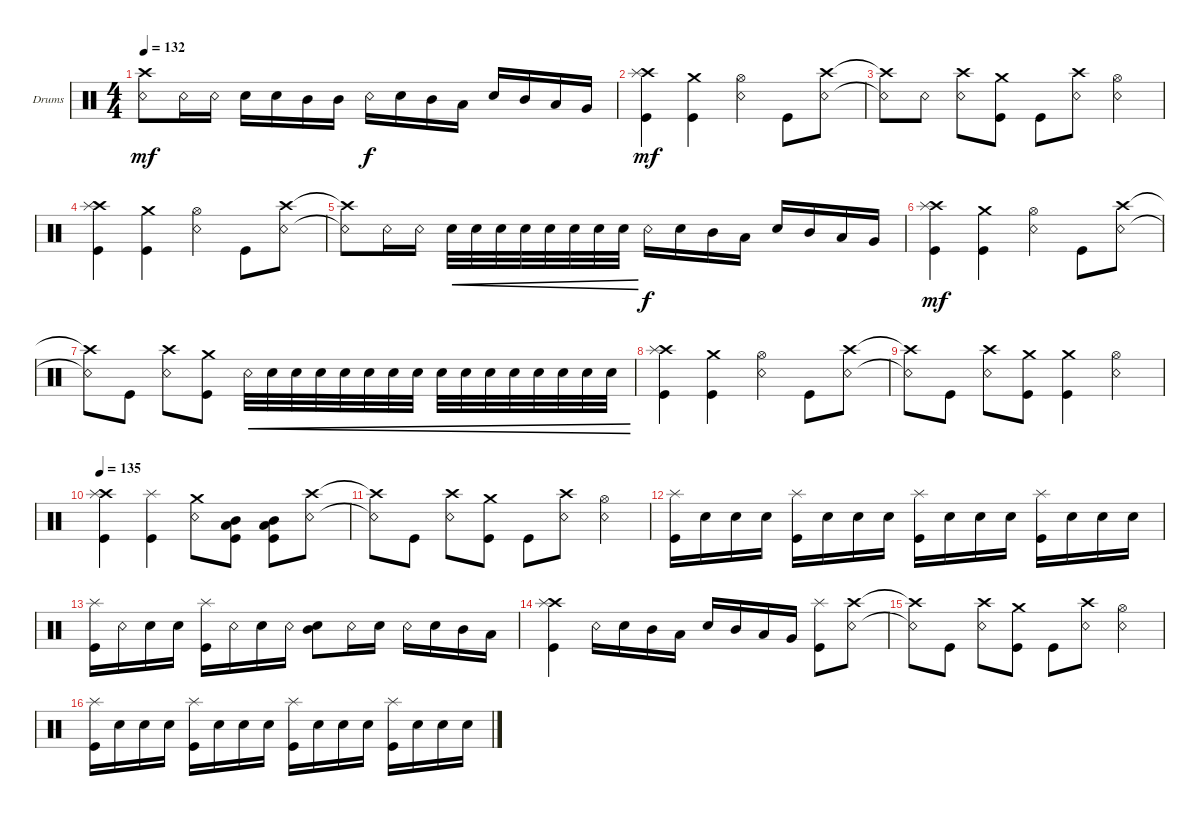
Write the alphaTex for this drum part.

\defaultSystemsLayout 4
\bracketExtendMode groupsimilarinstruments
\firstSystemTrackNameOrientation horizontal
\otherSystemsTrackNameOrientation horizontal
\track ("Drumkit" "Drums") {instrument percussion}
\staff {score}
\articulation defaults
\ts (4 4)
\tempo 132
\clef neutral
\ks c
("Crash high (hit)"{t} "Snare (rim shot)"{t}).8{dy mf} "Snare (rim shot)".16 "Snare (rim shot)".16 "Snare (hit) 2".16 "Snare (hit) 2".16 "Mid Tom (hit)".16 "Mid Tom (hit)".16 "Snare (rim shot)".16{dy f} "Snare (hit) 2".16 "Mid Tom (hit)".16 "Low Tom (hit)".16 "Snare (hit) 2".16 "Mid Tom (hit)".16 "Low Tom (hit)".16 "Very Low Tom (hit)".16 |
("Kick (hit)" "Crash high (hit)" "Splash (hit)").4{dy mf} ("Crash medium (hit)" "Kick (hit)").4 ("Snare (rim shot)" "Hi-Hat (open)").4 "Kick (hit)".8 ("Crash high (hit)" "Snare (rim shot)").8 |
("Crash high (hit)"{t} "Snare (rim shot)"{t}).8 "Snare (rim shot)".8 ("Crash high (hit)" "Snare (rim shot)").8 ("Kick (hit)" "Crash medium (hit)").8 "Kick (hit)".8 ("Crash high (hit)" "Snare (rim shot)").8 ("Snare (rim shot)" "Hi-Hat (open)").4 |
("Kick (hit)" "Crash high (hit)" "Splash (hit)").4 ("Crash medium (hit)" "Kick (hit)").4 ("Snare (rim shot)" "Hi-Hat (open)").4 "Kick (hit)".8 ("Crash high (hit)" "Snare (rim shot)").8 |
("Crash high (hit)"{t} "Snare (rim shot)"{t}).8 "Snare (rim shot)".16 "Snare (rim shot)".16 "Snare (hit) 2".32{cre} "Snare (hit) 2".32{cre} "Snare (hit) 2".32{cre} "Snare (hit) 2".32{cre} "Snare (hit) 2".32{cre} "Snare (hit) 2".32{cre} "Snare (hit) 2".32{cre} "Snare (hit) 2".32{cre} "Snare (rim shot)".16{dy f} "Snare (hit) 2".16 "Mid Tom (hit)".16 "Low Tom (hit)".16 "Snare (hit) 2".16 "Mid Tom (hit)".16 "Low Tom (hit)".16 "Very Low Tom (hit)".16 |
("Kick (hit)" "Crash high (hit)" "Splash (hit)").4{dy mf} ("Crash medium (hit)" "Kick (hit)").4 ("Snare (rim shot)" "Hi-Hat (open)").4 "Kick (hit)".8 ("Crash high (hit)" "Snare (rim shot)").8 |
("Crash high (hit)"{t} "Snare (rim shot)"{t}).8 "Kick (hit)".8 ("Crash high (hit)" "Snare (rim shot)").8 ("Kick (hit)" "Crash medium (hit)").8 "Snare (rim shot)".32{cre} "Snare (hit) 2".32{cre} "Snare (hit) 2".32{cre} "Snare (hit) 2".32{cre} "Snare (hit) 2".32{cre} "Snare (hit) 2".32{cre} "Snare (hit) 2".32{cre} "Snare (hit) 2".32{cre} "Snare (hit) 2".32{cre} "Snare (hit) 2".32{cre} "Snare (hit) 2".32{cre} "Snare (hit) 2".32{cre} "Snare (hit) 2".32{cre} "Snare (hit) 2".32{cre} "Snare (hit) 2".32{cre} "Snare (hit) 2".32{cre} |
("Kick (hit)" "Crash high (hit)" "Splash (hit)").4 ("Crash medium (hit)" "Kick (hit)").4 ("Snare (rim shot)" "Hi-Hat (open)").4 "Kick (hit)".8 ("Crash high (hit)" "Snare (rim shot)").8 |
("Crash high (hit)"{t} "Snare (rim shot)"{t}).8 "Kick (hit)".8 ("Crash high (hit)" "Snare (rim shot)").8 ("Kick (hit)" "Crash medium (hit)").8 ("Kick (hit)" "Crash medium (hit)").4 ("Snare (rim shot)" "Hi-Hat (open)").4 |
\tempo 135
("Kick (hit)" "Crash high (hit)" "Splash (hit)").4 ("Kick (hit)" "Splash (hit)").4 ("Snare (rim shot)" "Crash medium (hit)").8 ("Kick (hit)" "Mid Tom (hit)" "Low Tom (hit)").8 ("Kick (hit)" "Low Tom (hit)" "Mid Tom (hit)").8 ("Crash high (hit)" "Snare (rim shot)").8 |
("Crash high (hit)"{t} "Snare (rim shot)"{t}).8 "Kick (hit)".8 ("Crash high (hit)" "Snare (rim shot)").8 ("Kick (hit)" "Crash medium (hit)").8 "Kick (hit)".8 ("Crash high (hit)" "Snare (rim shot)").8 ("Snare (rim shot)" "Hi-Hat (open)").4 |
("Kick (hit)" "Splash (hit)").16 "Snare (hit) 2".16 "Snare (hit) 2".16 "Snare (hit) 2".16 ("Kick (hit)" "Splash (hit)").16 "Snare (hit) 2".16 "Snare (hit) 2".16 "Snare (hit) 2".16 ("Kick (hit)" "Splash (hit)").16 "Snare (hit) 2".16 "Snare (hit) 2".16 "Snare (hit) 2".16 ("Kick (hit)" "Splash (hit)").16 "Snare (hit) 2".16 "Snare (hit) 2".16 "Snare (hit) 2".16 |
("Kick (hit)" "Splash (hit)").16 "Snare (rim shot)".16 "Snare (hit) 2".16 "Snare (hit) 2".16 ("Kick (hit)" "Splash (hit)").16 "Snare (rim shot)".16 "Snare (hit) 2".16 "Snare (rim shot)".16 ("Snare (hit) 2" "Mid Tom (hit)").8 "Snare (rim shot)".16 "Snare (hit) 2".16 "Snare (rim shot)".16 "Snare (hit) 2".16 "Mid Tom (hit)".16 "Low Tom (hit)".16 |
("Kick (hit)" "Crash high (hit)" "Splash (hit)").4 "Snare (rim shot)".16 "Snare (hit) 2".16 "Mid Tom (hit)".16 "Low Tom (hit)".16 "Snare (hit) 2".16 "Mid Tom (hit)".16 "Low Tom (hit)".16 "Very Low Tom (hit)".16 ("Kick (hit)" "Splash (hit)").8 ("Crash high (hit)" "Snare (rim shot)").8 |
("Crash high (hit)"{t} "Snare (rim shot)"{t}).8 "Kick (hit)".8 ("Crash high (hit)" "Snare (rim shot)").8 ("Kick (hit)" "Crash medium (hit)").8 "Kick (hit)".8 ("Crash high (hit)" "Snare (rim shot)").8 ("Snare (rim shot)" "Hi-Hat (open)").4 |
("Kick (hit)" "Splash (hit)").16 "Snare (hit) 2".16 "Snare (hit) 2".16 "Snare (hit) 2".16 ("Kick (hit)" "Splash (hit)").16 "Snare (hit) 2".16 "Snare (hit) 2".16 "Snare (hit) 2".16 ("Kick (hit)" "Splash (hit)").16 "Snare (hit) 2".16 "Snare (hit) 2".16 "Snare (hit) 2".16 ("Kick (hit)" "Splash (hit)").16 "Snare (hit) 2".16 "Snare (hit) 2".16 "Snare (hit) 2".16
